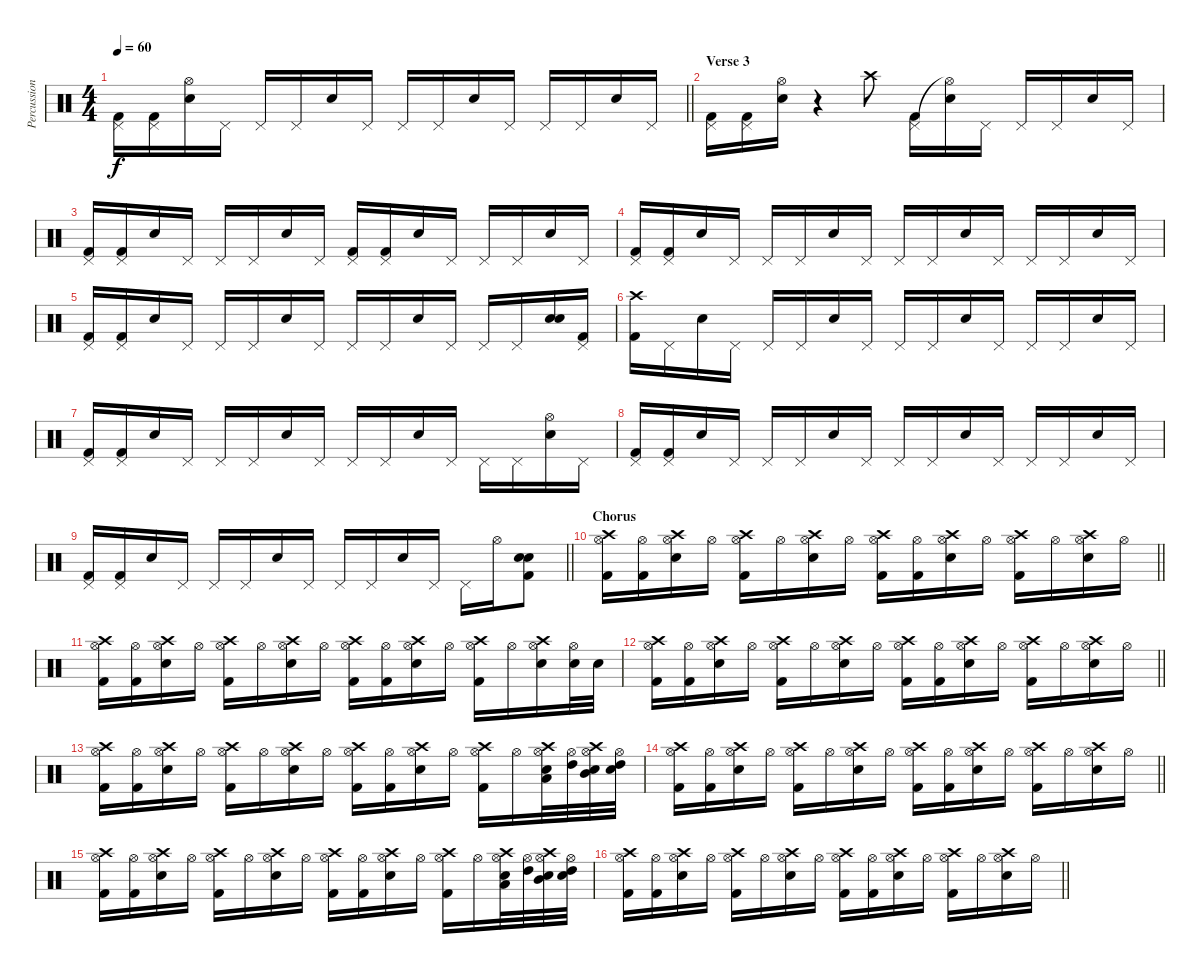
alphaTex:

\track ("Percussion" "Percussion") {instrument percussion}
\staff {score}
\articulation defaults
\ts (4 4)
\tempo 60
\clef neutral
\barLineRight lightlight
\ks c
("Pedal Hi-Hat (hit)" "Kick (hit) 2").16{dy f} ("Pedal Hi-Hat (hit)" "Kick (hit) 2").16 ("Hi-Hat (open)" "Snare (hit) 2").16 "Pedal Hi-Hat (hit)".16 "Pedal Hi-Hat (hit)".16 "Pedal Hi-Hat (hit)".16 "Snare (hit) 2".16 "Pedal Hi-Hat (hit)".16 "Pedal Hi-Hat (hit)".16 "Pedal Hi-Hat (hit)".16 "Snare (hit) 2".16 "Pedal Hi-Hat (hit)".16 "Pedal Hi-Hat (hit)".16 "Pedal Hi-Hat (hit)".16 "Snare (hit) 2".16 "Pedal Hi-Hat (hit)".16 |
\section ("" "Verse 3")
("Pedal Hi-Hat (hit)" "Kick (hit) 2").16 ("Pedal Hi-Hat (hit)" "Kick (hit) 2").16 ("Hi-Hat (open)" "Snare (hit) 2").16 r.4 "Crash high (hit)".8 ("Pedal Hi-Hat (hit)" "Kick (hit) 2").16{volume 13} ("Hi-Hat (open)"{t} "Snare (hit) 2").16 "Pedal Hi-Hat (hit)".16 "Pedal Hi-Hat (hit)".16 "Pedal Hi-Hat (hit)".16 "Snare (hit) 2".16 "Pedal Hi-Hat (hit)".16 |
("Pedal Hi-Hat (hit)" "Kick (hit) 2").16 ("Pedal Hi-Hat (hit)" "Kick (hit) 2").16 "Snare (hit) 2".16 "Pedal Hi-Hat (hit)".16 "Pedal Hi-Hat (hit)".16 "Pedal Hi-Hat (hit)".16 "Snare (hit) 2".16 "Pedal Hi-Hat (hit)".16 ("Pedal Hi-Hat (hit)" "Kick (hit) 2").16 ("Pedal Hi-Hat (hit)" "Kick (hit) 2").16 "Snare (hit) 2".16 "Pedal Hi-Hat (hit)".16 "Pedal Hi-Hat (hit)".16 "Pedal Hi-Hat (hit)".16 "Snare (hit) 2".16 "Pedal Hi-Hat (hit)".16 |
("Pedal Hi-Hat (hit)" "Kick (hit) 2").16 ("Pedal Hi-Hat (hit)" "Kick (hit) 2").16 "Snare (hit) 2".16 "Pedal Hi-Hat (hit)".16 "Pedal Hi-Hat (hit)".16 "Pedal Hi-Hat (hit)".16 "Snare (hit) 2".16 "Pedal Hi-Hat (hit)".16 "Pedal Hi-Hat (hit)".16 "Pedal Hi-Hat (hit)".16 "Snare (hit) 2".16 "Pedal Hi-Hat (hit)".16 "Pedal Hi-Hat (hit)".16 "Pedal Hi-Hat (hit)".16 "Snare (hit) 2".16 "Pedal Hi-Hat (hit)".16 |
("Pedal Hi-Hat (hit)" "Kick (hit) 2").16 ("Pedal Hi-Hat (hit)" "Kick (hit) 2").16 "Snare (hit) 2".16 "Pedal Hi-Hat (hit)".16 "Pedal Hi-Hat (hit)".16 "Pedal Hi-Hat (hit)".16 "Snare (hit) 2".16 "Pedal Hi-Hat (hit)".16 "Pedal Hi-Hat (hit)".16 "Pedal Hi-Hat (hit)".16 "Snare (hit) 2".16 "Pedal Hi-Hat (hit)".16 "Pedal Hi-Hat (hit)".16 "Pedal Hi-Hat (hit)".16 ("Electric Snare (hit)" "Snare (hit) 2").16 ("Pedal Hi-Hat (hit)" "Kick (hit) 2").16 |
("Crash high (hit)" "Kick (hit) 2").16 "Pedal Hi-Hat (hit)".16 "Snare (hit) 2".16 "Pedal Hi-Hat (hit)".16 "Pedal Hi-Hat (hit)".16 "Pedal Hi-Hat (hit)".16 "Snare (hit) 2".16 "Pedal Hi-Hat (hit)".16 "Pedal Hi-Hat (hit)".16 "Pedal Hi-Hat (hit)".16 "Snare (hit) 2".16 "Pedal Hi-Hat (hit)".16 "Pedal Hi-Hat (hit)".16 "Pedal Hi-Hat (hit)".16 "Snare (hit) 2".16 "Pedal Hi-Hat (hit)".16 |
("Pedal Hi-Hat (hit)" "Kick (hit) 2").16 ("Pedal Hi-Hat (hit)" "Kick (hit) 2").16 "Snare (hit) 2".16 "Pedal Hi-Hat (hit)".16 "Pedal Hi-Hat (hit)".16 "Pedal Hi-Hat (hit)".16 "Snare (hit) 2".16 "Pedal Hi-Hat (hit)".16 "Pedal Hi-Hat (hit)".16 "Pedal Hi-Hat (hit)".16 "Snare (hit) 2".16 "Pedal Hi-Hat (hit)".16 "Pedal Hi-Hat (hit)".16 "Pedal Hi-Hat (hit)".16 ("Hi-Hat (open)" "Snare (hit) 2").16 "Pedal Hi-Hat (hit)".16 |
("Pedal Hi-Hat (hit)" "Kick (hit) 2").16 ("Pedal Hi-Hat (hit)" "Kick (hit) 2").16 "Snare (hit) 2".16 "Pedal Hi-Hat (hit)".16 "Pedal Hi-Hat (hit)".16 "Pedal Hi-Hat (hit)".16 "Snare (hit) 2".16 "Pedal Hi-Hat (hit)".16 "Pedal Hi-Hat (hit)".16 "Pedal Hi-Hat (hit)".16 "Snare (hit) 2".16 "Pedal Hi-Hat (hit)".16 "Pedal Hi-Hat (hit)".16 "Pedal Hi-Hat (hit)".16 "Snare (hit) 2".16 "Pedal Hi-Hat (hit)".16 |
\barLineRight lightlight
("Pedal Hi-Hat (hit)" "Kick (hit) 2").16 ("Pedal Hi-Hat (hit)" "Kick (hit) 2").16 "Snare (hit) 2".16 "Pedal Hi-Hat (hit)".16 "Pedal Hi-Hat (hit)".16 "Pedal Hi-Hat (hit)".16 "Snare (hit) 2".16 "Pedal Hi-Hat (hit)".16 "Pedal Hi-Hat (hit)".16 "Pedal Hi-Hat (hit)".16 "Snare (hit) 2".16 "Pedal Hi-Hat (hit)".16 "Pedal Hi-Hat (hit)".16 "Hi-Hat (open)".16 ("Electric Snare (hit)" "Snare (hit) 2" "Kick (hit) 2").8 |
\section ("" "Chorus")
\barLineRight lightlight
("Hi-Hat (open)" "Crash high (hit)" "Kick (hit) 2").16 ("Hi-Hat (open)" "Kick (hit) 2").16 ("Hi-Hat (open)" "Crash high (hit)" "Snare (hit) 2").16 "Hi-Hat (open)".16 ("Hi-Hat (open)" "Crash high (hit)" "Kick (hit) 2").16 "Hi-Hat (open)".16 ("Hi-Hat (open)" "Crash high (hit)" "Snare (hit) 2").16 "Hi-Hat (open)".16 ("Hi-Hat (open)" "Crash high (hit)" "Kick (hit) 2").16 ("Hi-Hat (open)" "Kick (hit) 2").16 ("Hi-Hat (open)" "Crash high (hit)" "Snare (hit) 2").16 "Hi-Hat (open)".16 ("Hi-Hat (open)" "Crash high (hit)" "Kick (hit) 2").16 "Hi-Hat (open)".16 ("Hi-Hat (open)" "Crash high (hit)" "Snare (hit) 2").16 "Hi-Hat (open)".16 |
("Hi-Hat (open)" "Crash high (hit)" "Kick (hit) 2").16 ("Hi-Hat (open)" "Kick (hit) 2").16 ("Hi-Hat (open)" "Crash high (hit)" "Snare (hit) 2").16 "Hi-Hat (open)".16 ("Hi-Hat (open)" "Crash high (hit)" "Kick (hit) 2").16 "Hi-Hat (open)".16 ("Hi-Hat (open)" "Crash high (hit)" "Snare (hit) 2").16 "Hi-Hat (open)".16 ("Hi-Hat (open)" "Crash high (hit)" "Kick (hit) 2").16 ("Hi-Hat (open)" "Kick (hit) 2").16 ("Hi-Hat (open)" "Crash high (hit)" "Snare (hit) 2").16 "Hi-Hat (open)".16 ("Hi-Hat (open)" "Crash high (hit)" "Kick (hit) 2").16 "Hi-Hat (open)".16 ("Hi-Hat (open)" "Crash high (hit)" "Snare (hit) 2").16 ("Hi-Hat (open)" "Snare (hit) 2").32 "Snare (hit) 2".32 |
\barLineRight lightlight
("Hi-Hat (open)" "Crash high (hit)" "Kick (hit) 2").16 ("Hi-Hat (open)" "Kick (hit) 2").16 ("Hi-Hat (open)" "Crash high (hit)" "Snare (hit) 2").16 "Hi-Hat (open)".16 ("Hi-Hat (open)" "Crash high (hit)" "Kick (hit) 2").16 "Hi-Hat (open)".16 ("Hi-Hat (open)" "Crash high (hit)" "Snare (hit) 2").16 "Hi-Hat (open)".16 ("Hi-Hat (open)" "Crash high (hit)" "Kick (hit) 2").16 ("Hi-Hat (open)" "Kick (hit) 2").16 ("Hi-Hat (open)" "Crash high (hit)" "Snare (hit) 2").16 "Hi-Hat (open)".16 ("Hi-Hat (open)" "Crash high (hit)" "Kick (hit) 2").16 "Hi-Hat (open)".16 ("Hi-Hat (open)" "Crash high (hit)" "Snare (hit) 2").16 "Hi-Hat (open)".16 |
("Hi-Hat (open)" "Crash high (hit)" "Kick (hit) 2").16 ("Hi-Hat (open)" "Kick (hit) 2").16 ("Hi-Hat (open)" "Crash high (hit)" "Snare (hit) 2").16 "Hi-Hat (open)".16 ("Hi-Hat (open)" "Crash high (hit)" "Kick (hit) 2").16 "Hi-Hat (open)".16 ("Hi-Hat (open)" "Crash high (hit)" "Snare (hit) 2").16 "Hi-Hat (open)".16 ("Hi-Hat (open)" "Crash high (hit)" "Kick (hit) 2").16 ("Hi-Hat (open)" "Kick (hit) 2").16 ("Hi-Hat (open)" "Crash high (hit)" "Snare (hit) 2").16 "Hi-Hat (open)".16 ("Hi-Hat (open)" "Crash high (hit)" "Kick (hit) 2").16 "Hi-Hat (open)".16 ("Hi-Hat (open)" "Crash high (hit)" "Low Tom (hit)" "Snare (hit) 2").32 ("Hi-Hat (open)" "High Tom (hit)").32 ("Hi-Hat (open)" "Crash high (hit)" "Mid Tom (hit)" "Snare (hit) 2").32 ("Hi-Hat (open)" "High Tom (hit)" "Snare (hit) 2").32 |
\barLineRight lightlight
("Hi-Hat (open)" "Crash high (hit)" "Kick (hit) 2").16 ("Hi-Hat (open)" "Kick (hit) 2").16 ("Hi-Hat (open)" "Crash high (hit)" "Snare (hit) 2").16 "Hi-Hat (open)".16 ("Hi-Hat (open)" "Crash high (hit)" "Kick (hit) 2").16 "Hi-Hat (open)".16 ("Hi-Hat (open)" "Crash high (hit)" "Snare (hit) 2").16 "Hi-Hat (open)".16 ("Hi-Hat (open)" "Crash high (hit)" "Kick (hit) 2").16 ("Hi-Hat (open)" "Kick (hit) 2").16 ("Hi-Hat (open)" "Crash high (hit)" "Snare (hit) 2").16 "Hi-Hat (open)".16 ("Hi-Hat (open)" "Crash high (hit)" "Kick (hit) 2").16 "Hi-Hat (open)".16 ("Hi-Hat (open)" "Crash high (hit)" "Snare (hit) 2").16 "Hi-Hat (open)".16 |
("Hi-Hat (open)" "Crash high (hit)" "Kick (hit) 2").16 ("Hi-Hat (open)" "Kick (hit) 2").16 ("Hi-Hat (open)" "Crash high (hit)" "Snare (hit) 2").16 "Hi-Hat (open)".16 ("Hi-Hat (open)" "Crash high (hit)" "Kick (hit) 2").16 "Hi-Hat (open)".16 ("Hi-Hat (open)" "Crash high (hit)" "Snare (hit) 2").16 "Hi-Hat (open)".16 ("Hi-Hat (open)" "Crash high (hit)" "Kick (hit) 2").16 ("Hi-Hat (open)" "Kick (hit) 2").16 ("Hi-Hat (open)" "Crash high (hit)" "Snare (hit) 2").16 "Hi-Hat (open)".16 ("Hi-Hat (open)" "Crash high (hit)" "Kick (hit) 2").16 "Hi-Hat (open)".16 ("Hi-Hat (open)" "Crash high (hit)" "Low Tom (hit)" "Snare (hit) 2").32 ("Hi-Hat (open)" "High Tom (hit)").32 ("Hi-Hat (open)" "Crash high (hit)" "Mid Tom (hit)" "Snare (hit) 2").32 ("Hi-Hat (open)" "High Tom (hit)" "Snare (hit) 2").32 |
\barLineRight lightlight
("Hi-Hat (open)" "Crash high (hit)" "Kick (hit) 2").16 ("Hi-Hat (open)" "Kick (hit) 2").16 ("Hi-Hat (open)" "Crash high (hit)" "Snare (hit) 2").16 "Hi-Hat (open)".16 ("Hi-Hat (open)" "Crash high (hit)" "Kick (hit) 2").16 "Hi-Hat (open)".16 ("Hi-Hat (open)" "Crash high (hit)" "Snare (hit) 2").16 "Hi-Hat (open)".16 ("Hi-Hat (open)" "Crash high (hit)" "Kick (hit) 2").16 ("Hi-Hat (open)" "Kick (hit) 2").16 ("Hi-Hat (open)" "Crash high (hit)" "Snare (hit) 2").16 "Hi-Hat (open)".16 ("Hi-Hat (open)" "Crash high (hit)" "Kick (hit) 2").16 "Hi-Hat (open)".16 ("Hi-Hat (open)" "Crash high (hit)" "Snare (hit) 2").16 "Hi-Hat (open)".16
